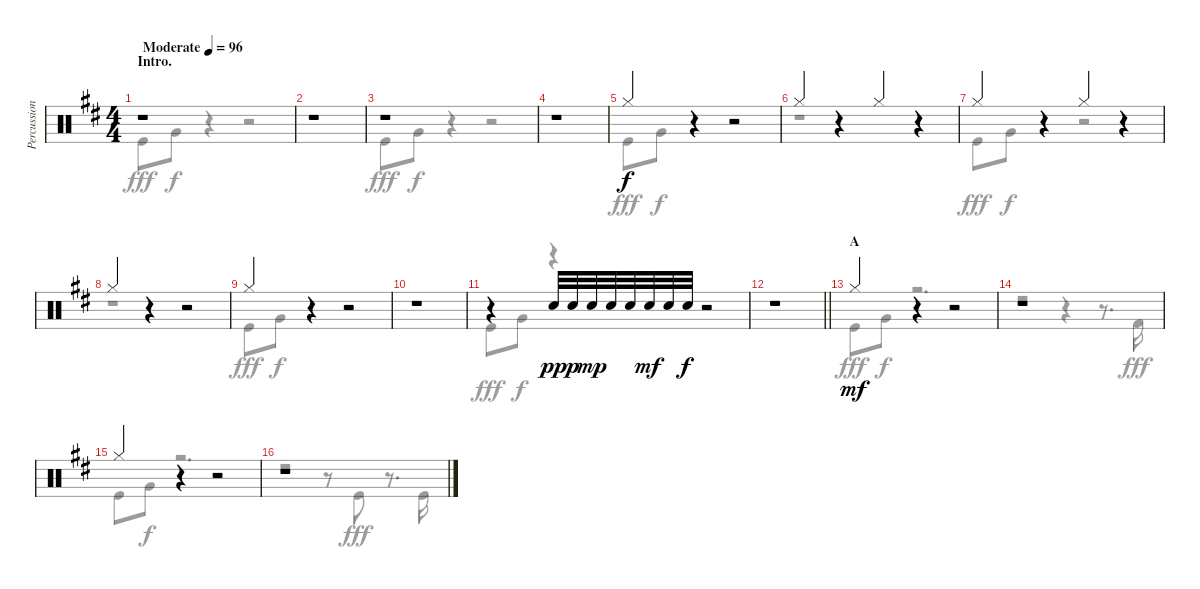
\track ("Percussion" "Percussion") {instrument percussion}
\staff {score}
\articulation defaults
\voice
\ts (4 4)
\section ("" "Intro.")
\tempo (96 "Moderate")
\clef neutral
\ks d
r.1{dy f} |
r.1 |
r.1 |
r.1 |
"Hi-Hat (closed)".4 r.4 r.2 |
"Hi-Hat (closed)".4 r.4 "Hi-Hat (closed)".4 r.4 |
"Hi-Hat (closed)".4 r.4 "Hi-Hat (closed)".4 r.4 |
"Hi-Hat (closed)".4 r.4 r.2 |
"Hi-Hat (closed)".4 r.4 r.2 |
r.1 |
r.4 "Snare (hit) 2".32{dy pp} "Snare (hit) 2".32{dy p} "Snare (hit) 2".32{dy mp} "Snare (hit) 2".32 "Snare (hit) 2".32 "Snare (hit) 2".32{dy mf} "Snare (hit) 2".32 "Snare (hit) 2".32{dy f} r.2 |
\barLineRight lightlight
r.1 |
\section ("" "A")
"Hi-Hat (closed)".4{dy mf} r.4 r.2 |
r.1 |
"Hi-Hat (closed)".4 r.4 r.2 |
r.1
\voice
\clef neutral
\ottava regular
\simile none
\ks d "Kick (hit)".8{dy fff} "Very Low Tom (hit)".8{dy f}
r.4 r.2 |
r.1 |
"Kick (hit)".8{dy fff} "Very Low Tom (hit)".8{dy f} r.4 r.2 |
r.1 |
"Kick (hit)".8{dy fff} "Very Low Tom (hit)".8{dy f} r.4 r.2 |
r.1 |
"Kick (hit)".8{dy fff} "Very Low Tom (hit)".8{dy f} r.4 r.2 |
r.1 |
"Kick (hit)".8{dy fff} "Very Low Tom (hit)".8{dy f} r.4 r.2 |
r.1 |
"Kick (hit)".8{dy fff} "Very Low Tom (hit)".8{dy f} r.4 r.2 |
\barLineRight lightlight
r.1 |
"Kick (hit)".8{dy fff} "Very Low Tom (hit)".8{dy f} r.2{d} |
r.2 r.4 r.8{d} "Kick (hit) 2".16{dy fff} |
"Kick (hit)".8 "Very Low Tom (hit)".8{dy f} r.2{d} |
r.2 r.8 "Kick (hit)".8{dy fff} r.8{d} "Kick (hit)".16
